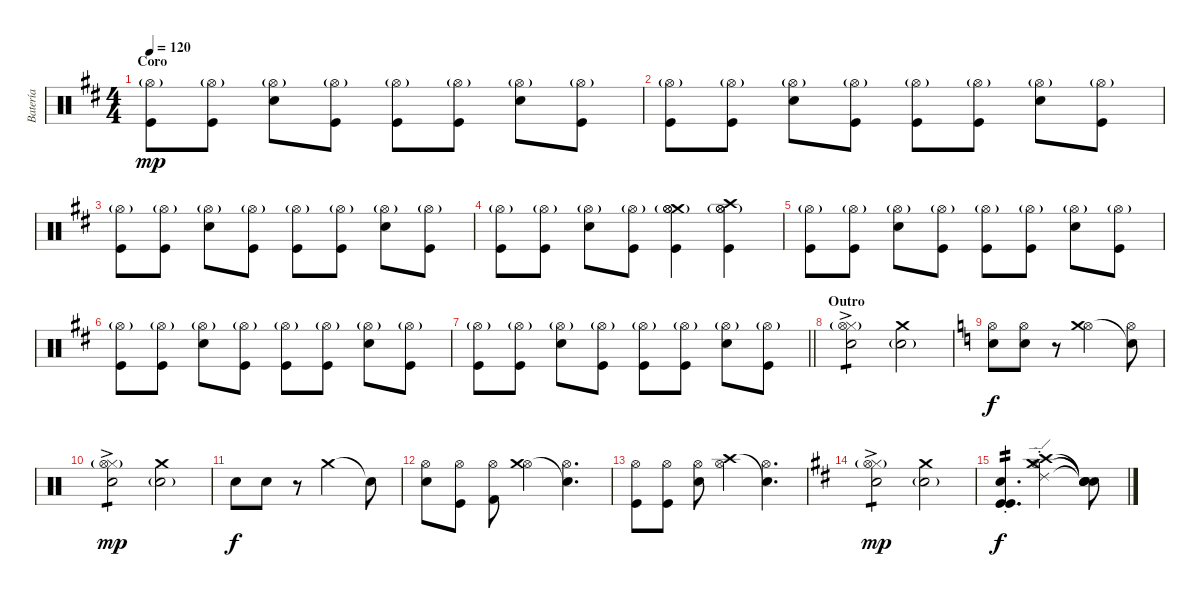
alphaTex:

\track ("Batería" "Batería") {instrument percussion}
\staff {score}
\articulation defaults
\ts (4 4)
\section ("" "Coro")
\tempo 120
\clef neutral
\ks d
("Kick (hit)" "Hi-Hat (open)"{g}).8{dy mp} ("Kick (hit)" "Hi-Hat (open)"{g}).8 ("Electric Snare (hit)" "Hi-Hat (open)"{g}).8 ("Kick (hit)" "Hi-Hat (open)"{g}).8 ("Kick (hit)" "Hi-Hat (open)"{g}).8 ("Kick (hit)" "Hi-Hat (open)"{g}).8 ("Electric Snare (hit)" "Hi-Hat (open)"{g}).8 ("Kick (hit)" "Hi-Hat (open)"{g}).8 |
("Kick (hit)" "Hi-Hat (open)"{g}).8 ("Kick (hit)" "Hi-Hat (open)"{g}).8 ("Electric Snare (hit)" "Hi-Hat (open)"{g}).8 ("Kick (hit)" "Hi-Hat (open)"{g}).8 ("Kick (hit)" "Hi-Hat (open)"{g}).8 ("Kick (hit)" "Hi-Hat (open)"{g}).8 ("Electric Snare (hit)" "Hi-Hat (open)"{g}).8 ("Kick (hit)" "Hi-Hat (open)"{g}).8 |
("Kick (hit)" "Hi-Hat (open)"{g}).8 ("Kick (hit)" "Hi-Hat (open)"{g}).8 ("Electric Snare (hit)" "Hi-Hat (open)"{g}).8 ("Kick (hit)" "Hi-Hat (open)"{g}).8 ("Kick (hit)" "Hi-Hat (open)"{g}).8 ("Kick (hit)" "Hi-Hat (open)"{g}).8 ("Electric Snare (hit)" "Hi-Hat (open)"{g}).8 ("Kick (hit)" "Hi-Hat (open)"{g}).8 |
("Kick (hit)" "Hi-Hat (open)"{g}).8 ("Kick (hit)" "Hi-Hat (open)"{g}).8 ("Electric Snare (hit)" "Hi-Hat (open)"{g}).8 ("Kick (hit)" "Hi-Hat (open)"{g}).8 ("Crash medium (hit)" "Hi-Hat (open)" "Kick (hit)" "Hi-Hat (open)"{g}).4 ("Crash high (hit)" "Hi-Hat (open)" "Kick (hit)" "Hi-Hat (open)"{g}).4 |
("Kick (hit)" "Hi-Hat (open)"{g}).8 ("Kick (hit)" "Hi-Hat (open)"{g}).8 ("Electric Snare (hit)" "Hi-Hat (open)"{g}).8 ("Kick (hit)" "Hi-Hat (open)"{g}).8 ("Kick (hit)" "Hi-Hat (open)"{g}).8 ("Kick (hit)" "Hi-Hat (open)"{g}).8 ("Electric Snare (hit)" "Hi-Hat (open)"{g}).8 ("Kick (hit)" "Hi-Hat (open)"{g}).8 |
("Kick (hit)" "Hi-Hat (open)"{g}).8 ("Kick (hit)" "Hi-Hat (open)"{g}).8 ("Electric Snare (hit)" "Hi-Hat (open)"{g}).8 ("Kick (hit)" "Hi-Hat (open)"{g}).8 ("Kick (hit)" "Hi-Hat (open)"{g}).8 ("Kick (hit)" "Hi-Hat (open)"{g}).8 ("Electric Snare (hit)" "Hi-Hat (open)"{g}).8 ("Kick (hit)" "Hi-Hat (open)"{g}).8 |
\barLineRight lightlight
("Kick (hit)" "Hi-Hat (open)"{g}).8 ("Kick (hit)" "Hi-Hat (open)"{g}).8 ("Electric Snare (hit)" "Hi-Hat (open)"{g}).8 ("Kick (hit)" "Hi-Hat (open)"{g}).8 ("Kick (hit)" "Hi-Hat (open)"{g}).8 ("Kick (hit)" "Hi-Hat (open)"{g}).8 ("Electric Snare (hit)" "Hi-Hat (open)"{g}).8 ("Kick (hit)" "Hi-Hat (open)"{g}).8 |
\section ("" "Outro")
("Hi-Hat (closed)"{g} "Electric Snare (hit)"{ac} "Hi-Hat (open)"{g}).2{tp 1} ("Snare (hit) 2"{g} "Crash medium (hit)").2 |
\ks c
("Hi-Hat (open)" "Snare (hit) 2").8{dy f} ("Hi-Hat (open)" "Snare (hit) 2").8 r.8 ("Hi-Hat (open)" "Crash medium (hit)").2 ("Hi-Hat (open)" "Snare (hit)"{t}).8 |
("Hi-Hat (closed)"{g} "Electric Snare (hit)"{ac} "Hi-Hat (open)"{g}).2{tp 1 dy mp} ("Snare (hit) 2"{g} "Crash medium (hit)").2 |
"Snare (hit) 2".8{dy f} "Snare (hit) 2".8 r.8 "Crash medium (hit)".2 "Snare (hit)"{t}.8 |
("Hi-Hat (open)" "Snare (hit) 2").8 ("Hi-Hat (open)" "Kick (hit)").8 ("Hi-Hat (open)" "Kick (hit) 2").8 ("Hi-Hat (open)" "Crash medium (hit)").4 ("Hi-Hat (open)" "Snare (hit)"{t}).4{d} |
("Hi-Hat (open)" "Kick (hit)").8 ("Hi-Hat (open)" "Kick (hit)").8 ("Hi-Hat (open)" "Snare (hit) 2").8 ("Hi-Hat (open)" "Crash high (hit)").4 ("Hi-Hat (open)" "Snare (hit)"{t}).4{d} |
\ks d
("Hi-Hat (closed)"{g} "Electric Snare (hit)"{ac} "Hi-Hat (open)"{g}).2{tp 1 dy mp} ("Snare (hit) 2"{g} "Crash medium (hit)").2 |
("Kick (hit)" "Kick (hit)"{st} "Snare (hit) 2"{st}).4{d tp 2 dy f} ("Ride (edge) 2"{st} "Crash high (hit)"{st} "Crash medium (hit)"{st} "Hi-Hat (open)"{st}).2 ("Snare (hit)"{t} "Snare (hit)"{t} "Snare (hit)"{t} "Snare (hit)"{t}).8
